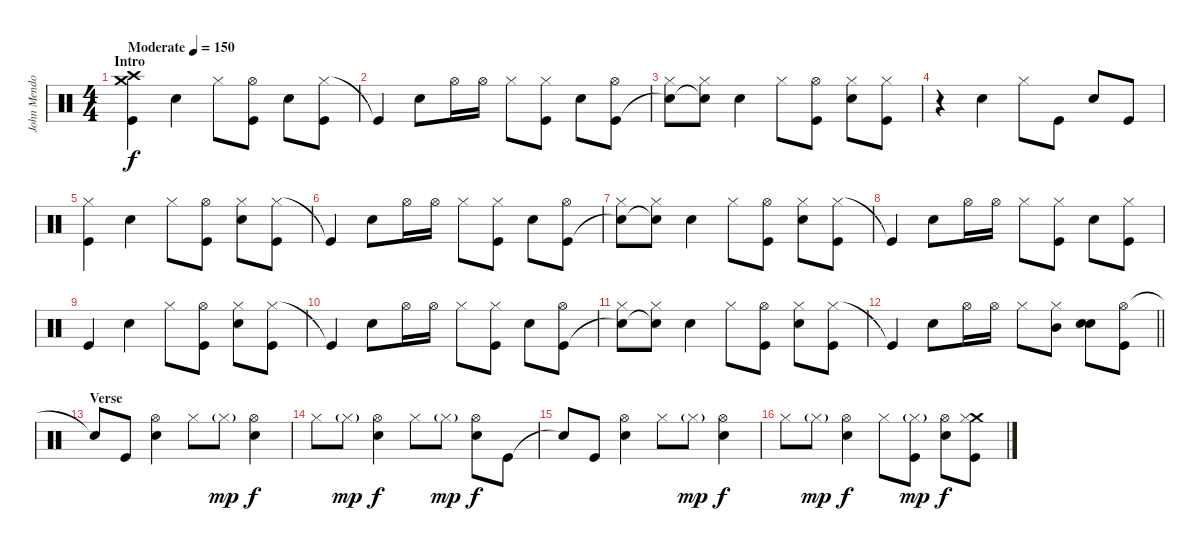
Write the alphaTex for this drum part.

\track ("John Mendoza" "John Mendo") {instrument percussion}
\staff {score}
\articulation defaults
\ts (4 4)
\section ("" "Intro")
\tempo (150 "Moderate")
\clef neutral
\ks c
("Crash medium (hit)" "Crash high (hit)" "Kick (hit)").4{dy f} "Snare (hit) 2".4 "Hi-Hat (closed)".8 ("Hi-Hat (open)" "Kick (hit)").8 "Snare (hit) 2".8 ("Hi-Hat (closed)" "Kick (hit)").8 |
"Kick (hit)"{t}.4 "Snare (hit) 2".8 "Hi-Hat (open)".16 "Hi-Hat (open)".16 "Hi-Hat (closed)".8 ("Hi-Hat (closed)" "Kick (hit)").8 "Snare (hit) 2".8 ("Hi-Hat (open)" "Kick (hit)").8 |
("Hi-Hat (closed)" "Snare (hit)"{t}).8 ("Hi-Hat (closed)" "Snare (hit)"{t}).8 "Snare (hit) 2".4 "Hi-Hat (closed)".8 ("Hi-Hat (open)" "Kick (hit)").8 ("Hi-Hat (closed)" "Snare (hit) 2").8 ("Hi-Hat (closed)" "Kick (hit)").8 |
r.4 "Snare (hit) 2".4 "Hi-Hat (closed)".8 "Kick (hit)".8 "Snare (hit) 2".8 "Kick (hit)".8 |
("Hi-Hat (closed)" "Kick (hit)").4 "Snare (hit) 2".4 "Hi-Hat (closed)".8 ("Hi-Hat (open)" "Kick (hit)").8 ("Hi-Hat (closed)" "Snare (hit) 2").8 ("Hi-Hat (closed)" "Kick (hit)").8 |
"Kick (hit)"{t}.4 "Snare (hit) 2".8 "Hi-Hat (open)".16 "Hi-Hat (open)".16 "Hi-Hat (closed)".8 ("Hi-Hat (closed)" "Kick (hit)").8 "Snare (hit) 2".8 ("Hi-Hat (open)" "Kick (hit)").8 |
("Hi-Hat (closed)" "Snare (hit)"{t}).8 ("Hi-Hat (closed)" "Snare (hit)"{t}).8 "Snare (hit) 2".4 "Hi-Hat (closed)".8 ("Hi-Hat (open)" "Kick (hit)").8 ("Hi-Hat (closed)" "Snare (hit) 2").8 ("Hi-Hat (closed)" "Kick (hit)").8 |
"Kick (hit)"{t}.4 "Snare (hit) 2".8 "Hi-Hat (open)".16 "Hi-Hat (open)".16 "Hi-Hat (closed)".8 ("Hi-Hat (closed)" "Kick (hit)").8 "Snare (hit) 2".8 ("Hi-Hat (closed)" "Kick (hit)").8 |
"Kick (hit)".4 "Snare (hit) 2".4 "Hi-Hat (closed)".8 ("Hi-Hat (open)" "Kick (hit)").8 ("Hi-Hat (closed)" "Snare (hit) 2").8 ("Hi-Hat (closed)" "Kick (hit)").8 |
"Kick (hit)"{t}.4 "Snare (hit) 2".8 "Hi-Hat (open)".16 "Hi-Hat (open)".16 "Hi-Hat (closed)".8 ("Hi-Hat (closed)" "Kick (hit)").8 "Snare (hit) 2".8 ("Hi-Hat (open)" "Kick (hit)").8 |
("Hi-Hat (closed)" "Snare (hit)"{t}).8 ("Hi-Hat (closed)" "Snare (hit)"{t}).8 "Snare (hit) 2".4 "Hi-Hat (closed)".8 ("Hi-Hat (open)" "Kick (hit)").8 ("Hi-Hat (closed)" "Snare (hit) 2").8 ("Hi-Hat (closed)" "Kick (hit)").8 |
\barLineRight lightlight "Kick (hit)"{t}.4 "Snare (hit) 2".8 "Hi-Hat (open)".16 "Hi-Hat (open)".16 "Hi-Hat (closed)".8
("Hi-Hat (closed)" "Mid Tom (hit)").8 ("Snare (hit) 2" "Snare (hit) 2").8 ("Hi-Hat (open)" "Kick (hit)").8 |
\section ("" "Verse")
"Snare (hit)"{t}.8 "Kick (hit)".8 ("Hi-Hat (open)" "Snare (hit) 2").4 "Hi-Hat (closed)".8 "Hi-Hat (closed)"{g}.8{dy mp} ("Hi-Hat (open)" "Snare (hit) 2").4{dy f} |
"Hi-Hat (closed)".8 "Hi-Hat (closed)"{g}.8{dy mp} ("Hi-Hat (open)" "Snare (hit) 2").4{dy f} "Hi-Hat (closed)".8 "Hi-Hat (closed)"{g}.8{dy mp} ("Hi-Hat (open)" "Snare (hit) 2").8{dy f} "Kick (hit)".8 |
"Snare (hit)"{t}.8 "Kick (hit)".8 ("Hi-Hat (open)" "Snare (hit) 2").4 "Hi-Hat (closed)".8 "Hi-Hat (closed)"{g}.8{dy mp} ("Hi-Hat (open)" "Snare (hit) 2").4{dy f} |
"Hi-Hat (closed)".8 "Hi-Hat (closed)"{g}.8{dy mp} ("Hi-Hat (open)" "Snare (hit) 2").4{dy f} "Hi-Hat (closed)".8 ("Hi-Hat (closed)"{g} "Kick (hit)").8{dy mp} ("Hi-Hat (open)" "Snare (hit) 2").8{dy f} ("Crash medium (hit)" "Hi-Hat (closed)" "Kick (hit)").8
